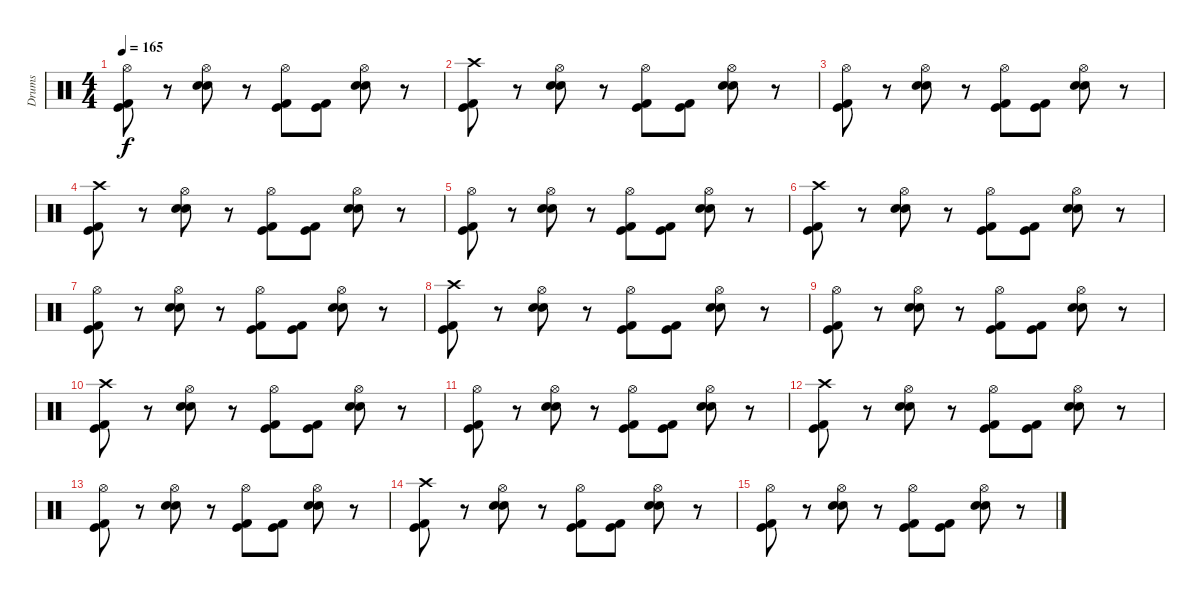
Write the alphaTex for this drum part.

\track ("Drums" "Drums") {instrument percussion}
\staff {score}
\articulation defaults
\ts (4 4)
\tempo 165
\clef neutral
\ks c
("Hi-Hat (open)" "Kick (hit) 2" "Kick (hit)").8{dy f} r.8 ("Hi-Hat (open)" "Electric Snare (hit)" "Snare (hit) 2").8 r.8 ("Hi-Hat (open)" "Kick (hit) 2" "Kick (hit)").8 ("Kick (hit) 2" "Kick (hit)").8 ("Hi-Hat (open)" "Electric Snare (hit)" "Snare (hit) 2").8 r.8 |
("Crash high (hit)" "Kick (hit) 2" "Kick (hit)").8 r.8 ("Hi-Hat (open)" "Electric Snare (hit)" "Snare (hit) 2").8 r.8 ("Hi-Hat (open)" "Kick (hit) 2" "Kick (hit)").8 ("Kick (hit) 2" "Kick (hit)").8 ("Hi-Hat (open)" "Electric Snare (hit)" "Snare (hit) 2").8 r.8 |
("Hi-Hat (open)" "Kick (hit) 2" "Kick (hit)").8 r.8 ("Hi-Hat (open)" "Electric Snare (hit)" "Snare (hit) 2").8 r.8 ("Hi-Hat (open)" "Kick (hit) 2" "Kick (hit)").8 ("Kick (hit) 2" "Kick (hit)").8 ("Hi-Hat (open)" "Electric Snare (hit)" "Snare (hit) 2").8 r.8 |
("Crash high (hit)" "Kick (hit) 2" "Kick (hit)").8 r.8 ("Hi-Hat (open)" "Electric Snare (hit)" "Snare (hit) 2").8 r.8 ("Hi-Hat (open)" "Kick (hit) 2" "Kick (hit)").8 ("Kick (hit) 2" "Kick (hit)").8 ("Hi-Hat (open)" "Electric Snare (hit)" "Snare (hit) 2").8 r.8 |
("Hi-Hat (open)" "Kick (hit) 2" "Kick (hit)").8 r.8 ("Hi-Hat (open)" "Electric Snare (hit)" "Snare (hit) 2").8 r.8 ("Hi-Hat (open)" "Kick (hit) 2" "Kick (hit)").8 ("Kick (hit) 2" "Kick (hit)").8 ("Hi-Hat (open)" "Electric Snare (hit)" "Snare (hit) 2").8 r.8 |
("Crash high (hit)" "Kick (hit) 2" "Kick (hit)").8 r.8 ("Hi-Hat (open)" "Electric Snare (hit)" "Snare (hit) 2").8 r.8 ("Hi-Hat (open)" "Kick (hit) 2" "Kick (hit)").8 ("Kick (hit) 2" "Kick (hit)").8 ("Hi-Hat (open)" "Electric Snare (hit)" "Snare (hit) 2").8 r.8 |
("Hi-Hat (open)" "Kick (hit) 2" "Kick (hit)").8 r.8 ("Hi-Hat (open)" "Electric Snare (hit)" "Snare (hit) 2").8 r.8 ("Hi-Hat (open)" "Kick (hit) 2" "Kick (hit)").8 ("Kick (hit) 2" "Kick (hit)").8 ("Hi-Hat (open)" "Electric Snare (hit)" "Snare (hit) 2").8 r.8 |
("Crash high (hit)" "Kick (hit) 2" "Kick (hit)").8 r.8 ("Hi-Hat (open)" "Electric Snare (hit)" "Snare (hit) 2").8 r.8 ("Hi-Hat (open)" "Kick (hit) 2" "Kick (hit)").8 ("Kick (hit) 2" "Kick (hit)").8 ("Hi-Hat (open)" "Electric Snare (hit)" "Snare (hit) 2").8 r.8 |
("Hi-Hat (open)" "Kick (hit) 2" "Kick (hit)").8 r.8 ("Hi-Hat (open)" "Electric Snare (hit)" "Snare (hit) 2").8 r.8 ("Hi-Hat (open)" "Kick (hit) 2" "Kick (hit)").8 ("Kick (hit) 2" "Kick (hit)").8 ("Hi-Hat (open)" "Electric Snare (hit)" "Snare (hit) 2").8 r.8 |
("Crash high (hit)" "Kick (hit) 2" "Kick (hit)").8 r.8 ("Hi-Hat (open)" "Electric Snare (hit)" "Snare (hit) 2").8 r.8 ("Hi-Hat (open)" "Kick (hit) 2" "Kick (hit)").8 ("Kick (hit) 2" "Kick (hit)").8 ("Hi-Hat (open)" "Electric Snare (hit)" "Snare (hit) 2").8 r.8 |
("Hi-Hat (open)" "Kick (hit) 2" "Kick (hit)").8 r.8 ("Hi-Hat (open)" "Electric Snare (hit)" "Snare (hit) 2").8 r.8 ("Hi-Hat (open)" "Kick (hit) 2" "Kick (hit)").8 ("Kick (hit) 2" "Kick (hit)").8 ("Hi-Hat (open)" "Electric Snare (hit)" "Snare (hit) 2").8 r.8 |
("Crash high (hit)" "Kick (hit) 2" "Kick (hit)").8 r.8 ("Hi-Hat (open)" "Electric Snare (hit)" "Snare (hit) 2").8 r.8 ("Hi-Hat (open)" "Kick (hit) 2" "Kick (hit)").8 ("Kick (hit) 2" "Kick (hit)").8 ("Hi-Hat (open)" "Electric Snare (hit)" "Snare (hit) 2").8 r.8 |
("Hi-Hat (open)" "Kick (hit) 2" "Kick (hit)").8 r.8 ("Hi-Hat (open)" "Electric Snare (hit)" "Snare (hit) 2").8 r.8 ("Hi-Hat (open)" "Kick (hit) 2" "Kick (hit)").8 ("Kick (hit) 2" "Kick (hit)").8 ("Hi-Hat (open)" "Electric Snare (hit)" "Snare (hit) 2").8 r.8 |
("Crash high (hit)" "Kick (hit) 2" "Kick (hit)").8 r.8 ("Hi-Hat (open)" "Electric Snare (hit)" "Snare (hit) 2").8 r.8 ("Hi-Hat (open)" "Kick (hit) 2" "Kick (hit)").8 ("Kick (hit) 2" "Kick (hit)").8 ("Hi-Hat (open)" "Electric Snare (hit)" "Snare (hit) 2").8 r.8 |
("Hi-Hat (open)" "Kick (hit) 2" "Kick (hit)").8 r.8 ("Hi-Hat (open)" "Electric Snare (hit)" "Snare (hit) 2").8 r.8 ("Hi-Hat (open)" "Kick (hit) 2" "Kick (hit)").8 ("Kick (hit) 2" "Kick (hit)").8 ("Hi-Hat (open)" "Electric Snare (hit)" "Snare (hit) 2").8 r.8
